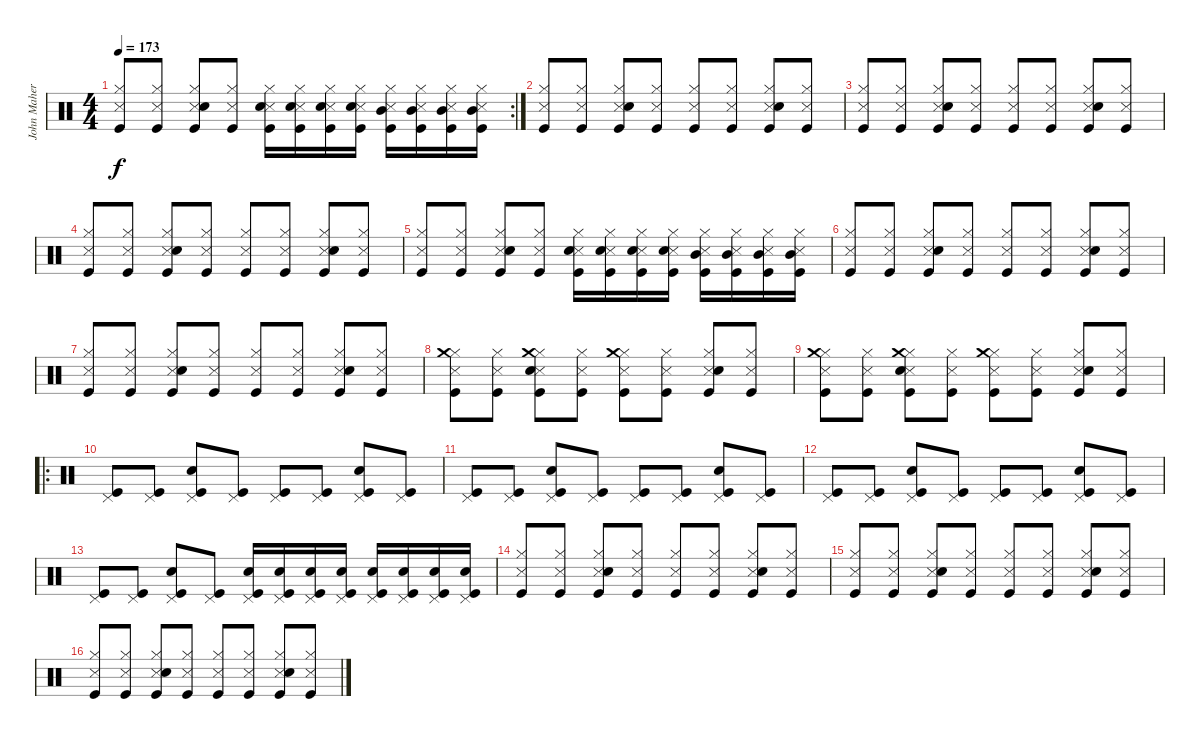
\track ("John Maher" "John Maher") {instrument percussion}
\staff {score}
\articulation defaults
\rc 2
\ts (4 4)
\tempo 173
\clef neutral
\ks c
("Snare (side stick) 3" "Hi-Hat (closed)" "Kick (hit)").8{dy f} ("Snare (side stick) 3" "Hi-Hat (closed)" "Kick (hit)").8 ("Snare (side stick) 3" "Hi-Hat (closed)" "Snare (hit) 2" "Kick (hit)").8 ("Snare (side stick) 3" "Hi-Hat (closed)" "Kick (hit)").8 ("Snare (side stick) 3" "Hi-Hat (closed)" "Snare (hit) 2" "Kick (hit)").16 ("Snare (side stick) 3" "Hi-Hat (closed)" "Snare (hit) 2" "Kick (hit)").16 ("Snare (side stick) 3" "Hi-Hat (closed)" "Snare (hit) 2" "Kick (hit)").16 ("Snare (side stick) 3" "Hi-Hat (closed)" "Snare (hit) 2" "Kick (hit)").16 ("Snare (side stick) 3" "Hi-Hat (closed)" "Mid Tom (hit)" "Kick (hit)").16 ("Snare (side stick) 3" "Hi-Hat (closed)" "Mid Tom (hit)" "Kick (hit)").16 ("Snare (side stick) 3" "Hi-Hat (closed)" "Mid Tom (hit)" "Kick (hit)").16 ("Snare (side stick) 3" "Hi-Hat (closed)" "Mid Tom (hit)" "Kick (hit)").16 |
("Snare (side stick) 3" "Hi-Hat (closed)" "Kick (hit)").8 ("Snare (side stick) 3" "Hi-Hat (closed)" "Kick (hit)").8 ("Snare (side stick) 3" "Hi-Hat (closed)" "Snare (hit) 2" "Kick (hit)").8 ("Snare (side stick) 3" "Hi-Hat (closed)" "Kick (hit)").8 ("Snare (side stick) 3" "Hi-Hat (closed)" "Kick (hit)").8 ("Snare (side stick) 3" "Hi-Hat (closed)" "Kick (hit)").8 ("Snare (side stick) 3" "Hi-Hat (closed)" "Snare (hit) 2" "Kick (hit)").8 ("Snare (side stick) 3" "Hi-Hat (closed)" "Kick (hit)").8 |
("Snare (side stick) 3" "Hi-Hat (closed)" "Kick (hit)").8 ("Snare (side stick) 3" "Hi-Hat (closed)" "Kick (hit)").8 ("Snare (side stick) 3" "Hi-Hat (closed)" "Snare (hit) 2" "Kick (hit)").8 ("Snare (side stick) 3" "Hi-Hat (closed)" "Kick (hit)").8 ("Snare (side stick) 3" "Hi-Hat (closed)" "Kick (hit)").8 ("Snare (side stick) 3" "Hi-Hat (closed)" "Kick (hit)").8 ("Snare (side stick) 3" "Hi-Hat (closed)" "Snare (hit) 2" "Kick (hit)").8 ("Snare (side stick) 3" "Hi-Hat (closed)" "Kick (hit)").8 |
("Snare (side stick) 3" "Hi-Hat (closed)" "Kick (hit)").8 ("Snare (side stick) 3" "Hi-Hat (closed)" "Kick (hit)").8 ("Snare (side stick) 3" "Hi-Hat (closed)" "Snare (hit) 2" "Kick (hit)").8 ("Snare (side stick) 3" "Hi-Hat (closed)" "Kick (hit)").8 ("Snare (side stick) 3" "Hi-Hat (closed)" "Kick (hit)").8 ("Snare (side stick) 3" "Hi-Hat (closed)" "Kick (hit)").8 ("Snare (side stick) 3" "Hi-Hat (closed)" "Snare (hit) 2" "Kick (hit)").8 ("Snare (side stick) 3" "Hi-Hat (closed)" "Kick (hit)").8 |
("Snare (side stick) 3" "Hi-Hat (closed)" "Kick (hit)").8 ("Snare (side stick) 3" "Hi-Hat (closed)" "Kick (hit)").8 ("Snare (side stick) 3" "Hi-Hat (closed)" "Snare (hit) 2" "Kick (hit)").8 ("Snare (side stick) 3" "Hi-Hat (closed)" "Kick (hit)").8 ("Snare (side stick) 3" "Hi-Hat (closed)" "Snare (hit) 2" "Kick (hit)").16 ("Snare (side stick) 3" "Hi-Hat (closed)" "Snare (hit) 2" "Kick (hit)").16 ("Snare (side stick) 3" "Hi-Hat (closed)" "Snare (hit) 2" "Kick (hit)").16 ("Snare (side stick) 3" "Hi-Hat (closed)" "Snare (hit) 2" "Kick (hit)").16 ("Snare (side stick) 3" "Hi-Hat (closed)" "Mid Tom (hit)" "Kick (hit)").16 ("Snare (side stick) 3" "Hi-Hat (closed)" "Mid Tom (hit)" "Kick (hit)").16 ("Snare (side stick) 3" "Hi-Hat (closed)" "Mid Tom (hit)" "Kick (hit)").16 ("Snare (side stick) 3" "Hi-Hat (closed)" "Mid Tom (hit)" "Kick (hit)").16 |
("Snare (side stick) 3" "Hi-Hat (closed)" "Kick (hit)").8 ("Snare (side stick) 3" "Hi-Hat (closed)" "Kick (hit)").8 ("Snare (side stick) 3" "Hi-Hat (closed)" "Snare (hit) 2" "Kick (hit)").8 ("Snare (side stick) 3" "Hi-Hat (closed)" "Kick (hit)").8 ("Snare (side stick) 3" "Hi-Hat (closed)" "Kick (hit)").8 ("Snare (side stick) 3" "Hi-Hat (closed)" "Kick (hit)").8 ("Snare (side stick) 3" "Hi-Hat (closed)" "Snare (hit) 2" "Kick (hit)").8 ("Snare (side stick) 3" "Hi-Hat (closed)" "Kick (hit)").8 |
("Snare (side stick) 3" "Hi-Hat (closed)" "Kick (hit)").8 ("Snare (side stick) 3" "Hi-Hat (closed)" "Kick (hit)").8 ("Snare (side stick) 3" "Hi-Hat (closed)" "Snare (hit) 2" "Kick (hit)").8 ("Snare (side stick) 3" "Hi-Hat (closed)" "Kick (hit)").8 ("Snare (side stick) 3" "Hi-Hat (closed)" "Kick (hit)").8 ("Snare (side stick) 3" "Hi-Hat (closed)" "Kick (hit)").8 ("Snare (side stick) 3" "Hi-Hat (closed)" "Snare (hit) 2" "Kick (hit)").8 ("Snare (side stick) 3" "Hi-Hat (closed)" "Kick (hit)").8 |
("Snare (side stick) 3" "Hi-Hat (closed)" "Crash medium (hit)" "Kick (hit)").8 ("Snare (side stick) 3" "Hi-Hat (closed)" "Kick (hit)").8 ("Snare (side stick) 3" "Hi-Hat (closed)" "Crash medium (hit)" "Snare (hit) 2" "Kick (hit)").8 ("Snare (side stick) 3" "Hi-Hat (closed)" "Kick (hit)").8 ("Snare (side stick) 3" "Hi-Hat (closed)" "Crash medium (hit)" "Kick (hit)").8 ("Snare (side stick) 3" "Hi-Hat (closed)" "Kick (hit)").8 ("Snare (side stick) 3" "Hi-Hat (closed)" "Snare (hit) 2" "Kick (hit)").8 ("Snare (side stick) 3" "Hi-Hat (closed)" "Kick (hit)").8 |
("Snare (side stick) 3" "Hi-Hat (closed)" "Crash medium (hit)" "Kick (hit)").8 ("Snare (side stick) 3" "Hi-Hat (closed)" "Kick (hit)").8 ("Snare (side stick) 3" "Hi-Hat (closed)" "Crash medium (hit)" "Snare (hit) 2" "Kick (hit)").8 ("Snare (side stick) 3" "Hi-Hat (closed)" "Kick (hit)").8 ("Snare (side stick) 3" "Hi-Hat (closed)" "Crash medium (hit)" "Kick (hit)").8 ("Snare (side stick) 3" "Hi-Hat (closed)" "Kick (hit)").8 ("Snare (side stick) 3" "Hi-Hat (closed)" "Snare (hit) 2" "Kick (hit)").8 ("Snare (side stick) 3" "Hi-Hat (closed)" "Kick (hit)").8 |
\ro
("Pedal Hi-Hat (hit)" "Kick (hit)").8 ("Pedal Hi-Hat (hit)" "Kick (hit)").8 ("Pedal Hi-Hat (hit)" "Snare (hit) 2" "Kick (hit)").8 ("Pedal Hi-Hat (hit)" "Kick (hit)").8 ("Pedal Hi-Hat (hit)" "Kick (hit)").8 ("Pedal Hi-Hat (hit)" "Kick (hit)").8 ("Pedal Hi-Hat (hit)" "Snare (hit) 2" "Kick (hit)").8 ("Pedal Hi-Hat (hit)" "Kick (hit)").8 |
("Pedal Hi-Hat (hit)" "Kick (hit)").8 ("Pedal Hi-Hat (hit)" "Kick (hit)").8 ("Pedal Hi-Hat (hit)" "Snare (hit) 2" "Kick (hit)").8 ("Pedal Hi-Hat (hit)" "Kick (hit)").8 ("Pedal Hi-Hat (hit)" "Kick (hit)").8 ("Pedal Hi-Hat (hit)" "Kick (hit)").8 ("Pedal Hi-Hat (hit)" "Snare (hit) 2" "Kick (hit)").8 ("Pedal Hi-Hat (hit)" "Kick (hit)").8 |
("Pedal Hi-Hat (hit)" "Kick (hit)").8 ("Pedal Hi-Hat (hit)" "Kick (hit)").8 ("Pedal Hi-Hat (hit)" "Snare (hit) 2" "Kick (hit)").8 ("Pedal Hi-Hat (hit)" "Kick (hit)").8 ("Pedal Hi-Hat (hit)" "Kick (hit)").8 ("Pedal Hi-Hat (hit)" "Kick (hit)").8 ("Pedal Hi-Hat (hit)" "Snare (hit) 2" "Kick (hit)").8 ("Pedal Hi-Hat (hit)" "Kick (hit)").8 |
("Pedal Hi-Hat (hit)" "Kick (hit)").8 ("Pedal Hi-Hat (hit)" "Kick (hit)").8 ("Pedal Hi-Hat (hit)" "Snare (hit) 2" "Kick (hit)").8 ("Pedal Hi-Hat (hit)" "Kick (hit)").8 ("Pedal Hi-Hat (hit)" "Snare (hit) 2" "Kick (hit)").16 ("Pedal Hi-Hat (hit)" "Snare (hit) 2" "Kick (hit)").16 ("Pedal Hi-Hat (hit)" "Snare (hit) 2" "Kick (hit)").16 ("Pedal Hi-Hat (hit)" "Snare (hit) 2" "Kick (hit)").16 ("Pedal Hi-Hat (hit)" "Snare (hit) 2" "Kick (hit)").16 ("Pedal Hi-Hat (hit)" "Snare (hit) 2" "Kick (hit)").16 ("Pedal Hi-Hat (hit)" "Snare (hit) 2" "Kick (hit)").16 ("Pedal Hi-Hat (hit)" "Snare (hit) 2" "Kick (hit)").16 |
("Snare (side stick) 3" "Hi-Hat (closed)" "Kick (hit)").8 ("Snare (side stick) 3" "Hi-Hat (closed)" "Kick (hit)").8 ("Snare (side stick) 3" "Hi-Hat (closed)" "Snare (hit) 2" "Kick (hit)").8 ("Snare (side stick) 3" "Hi-Hat (closed)" "Kick (hit)").8 ("Snare (side stick) 3" "Hi-Hat (closed)" "Kick (hit)").8 ("Snare (side stick) 3" "Hi-Hat (closed)" "Kick (hit)").8 ("Snare (side stick) 3" "Hi-Hat (closed)" "Snare (hit) 2" "Kick (hit)").8 ("Snare (side stick) 3" "Hi-Hat (closed)" "Kick (hit)").8 |
("Snare (side stick) 3" "Hi-Hat (closed)" "Kick (hit)").8 ("Snare (side stick) 3" "Hi-Hat (closed)" "Kick (hit)").8 ("Snare (side stick) 3" "Hi-Hat (closed)" "Snare (hit) 2" "Kick (hit)").8 ("Snare (side stick) 3" "Hi-Hat (closed)" "Kick (hit)").8 ("Snare (side stick) 3" "Hi-Hat (closed)" "Kick (hit)").8 ("Snare (side stick) 3" "Hi-Hat (closed)" "Kick (hit)").8 ("Snare (side stick) 3" "Hi-Hat (closed)" "Snare (hit) 2" "Kick (hit)").8 ("Snare (side stick) 3" "Hi-Hat (closed)" "Kick (hit)").8 |
("Snare (side stick) 3" "Hi-Hat (closed)" "Kick (hit)").8 ("Snare (side stick) 3" "Hi-Hat (closed)" "Kick (hit)").8 ("Snare (side stick) 3" "Hi-Hat (closed)" "Snare (hit) 2" "Kick (hit)").8 ("Snare (side stick) 3" "Hi-Hat (closed)" "Kick (hit)").8 ("Snare (side stick) 3" "Hi-Hat (closed)" "Kick (hit)").8 ("Snare (side stick) 3" "Hi-Hat (closed)" "Kick (hit)").8 ("Snare (side stick) 3" "Hi-Hat (closed)" "Snare (hit) 2" "Kick (hit)").8 ("Snare (side stick) 3" "Hi-Hat (closed)" "Kick (hit)").8
